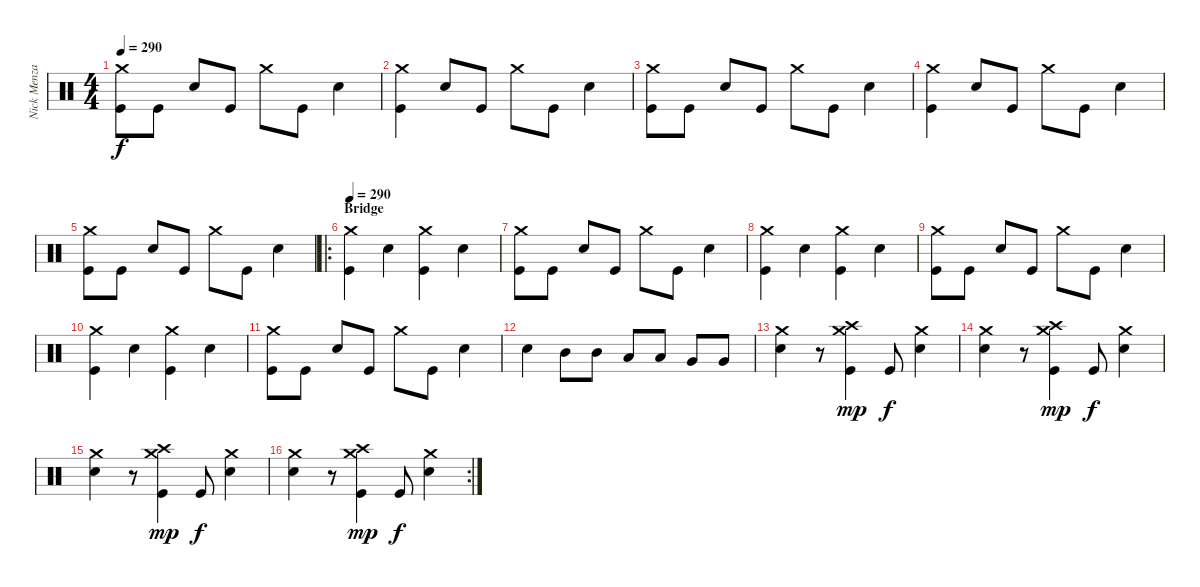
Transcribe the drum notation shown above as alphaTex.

\track ("Nick Menza" "Nick Menza") {instrument percussion}
\staff {score}
\articulation defaults
\ts (4 4)
\tempo 290
\clef neutral
\ks c
("Crash medium (hit)" "Kick (hit)").8{dy f} "Kick (hit)".8 "Snare (hit) 2".8 "Kick (hit)".8 "Crash medium (hit)".8 "Kick (hit)".8 "Snare (hit) 2".4 |
("Crash medium (hit)" "Kick (hit)").4 "Snare (hit) 2".8 "Kick (hit)".8 "Crash medium (hit)".8 "Kick (hit)".8 "Snare (hit) 2".4 |
("Crash medium (hit)" "Kick (hit)").8 "Kick (hit)".8 "Snare (hit) 2".8 "Kick (hit)".8 "Crash medium (hit)".8 "Kick (hit)".8 "Snare (hit) 2".4 |
("Crash medium (hit)" "Kick (hit)").4 "Snare (hit) 2".8 "Kick (hit)".8 "Crash medium (hit)".8 "Kick (hit)".8 "Snare (hit) 2".4 |
("Crash medium (hit)" "Kick (hit)").8 "Kick (hit)".8 "Snare (hit) 2".8 "Kick (hit)".8 "Crash medium (hit)".8 "Kick (hit)".8 "Snare (hit) 2".4 |
\ro
\section ("" "Bridge")
\tempo 290
("Crash medium (hit)" "Kick (hit)").4 "Snare (hit) 2".4 ("Crash medium (hit)" "Kick (hit)").4 "Snare (hit) 2".4 |
("Crash medium (hit)" "Kick (hit)").8 "Kick (hit)".8 "Snare (hit) 2".8 "Kick (hit)".8 "Crash medium (hit)".8 "Kick (hit)".8 "Snare (hit) 2".4 |
("Crash medium (hit)" "Kick (hit)").4 "Snare (hit) 2".4 ("Crash medium (hit)" "Kick (hit)").4 "Snare (hit) 2".4 |
("Crash medium (hit)" "Kick (hit)").8 "Kick (hit)".8 "Snare (hit) 2".8 "Kick (hit)".8 "Crash medium (hit)".8 "Kick (hit)".8 "Snare (hit) 2".4 |
("Crash medium (hit)" "Kick (hit)").4 "Snare (hit) 2".4 ("Crash medium (hit)" "Kick (hit)").4 "Snare (hit) 2".4 |
("Crash medium (hit)" "Kick (hit)").8 "Kick (hit)".8 "Snare (hit) 2".8 "Kick (hit)".8 "Crash medium (hit)".8 "Kick (hit)".8 "Snare (hit) 2".4 |
"Snare (hit) 2".4 "Mid Tom (hit)".8 "Mid Tom (hit)".8 "Low Tom (hit)".8 "Low Tom (hit)".8 "Very Low Tom (hit)".8 "Very Low Tom (hit)".8 |
("Crash medium (hit)" "Snare (hit) 2").4 r.8 ("Crash high (hit)" "Crash medium (hit)" "Kick (hit)").4{dy mp} "Kick (hit)".8{dy f} ("Crash medium (hit)" "Snare (hit) 2").4 |
("Crash medium (hit)" "Snare (hit) 2").4 r.8 ("Crash high (hit)" "Crash medium (hit)" "Kick (hit)").4{dy mp} "Kick (hit)".8{dy f} ("Crash medium (hit)" "Snare (hit) 2").4 |
("Crash medium (hit)" "Snare (hit) 2").4 r.8 ("Crash high (hit)" "Crash medium (hit)" "Kick (hit)").4{dy mp} "Kick (hit)".8{dy f} ("Crash medium (hit)" "Snare (hit) 2").4 |
\rc 2
("Crash medium (hit)" "Snare (hit) 2").4 r.8 ("Crash high (hit)" "Crash medium (hit)" "Kick (hit)").4{dy mp} "Kick (hit)".8{dy f} ("Crash medium (hit)" "Snare (hit) 2").4
